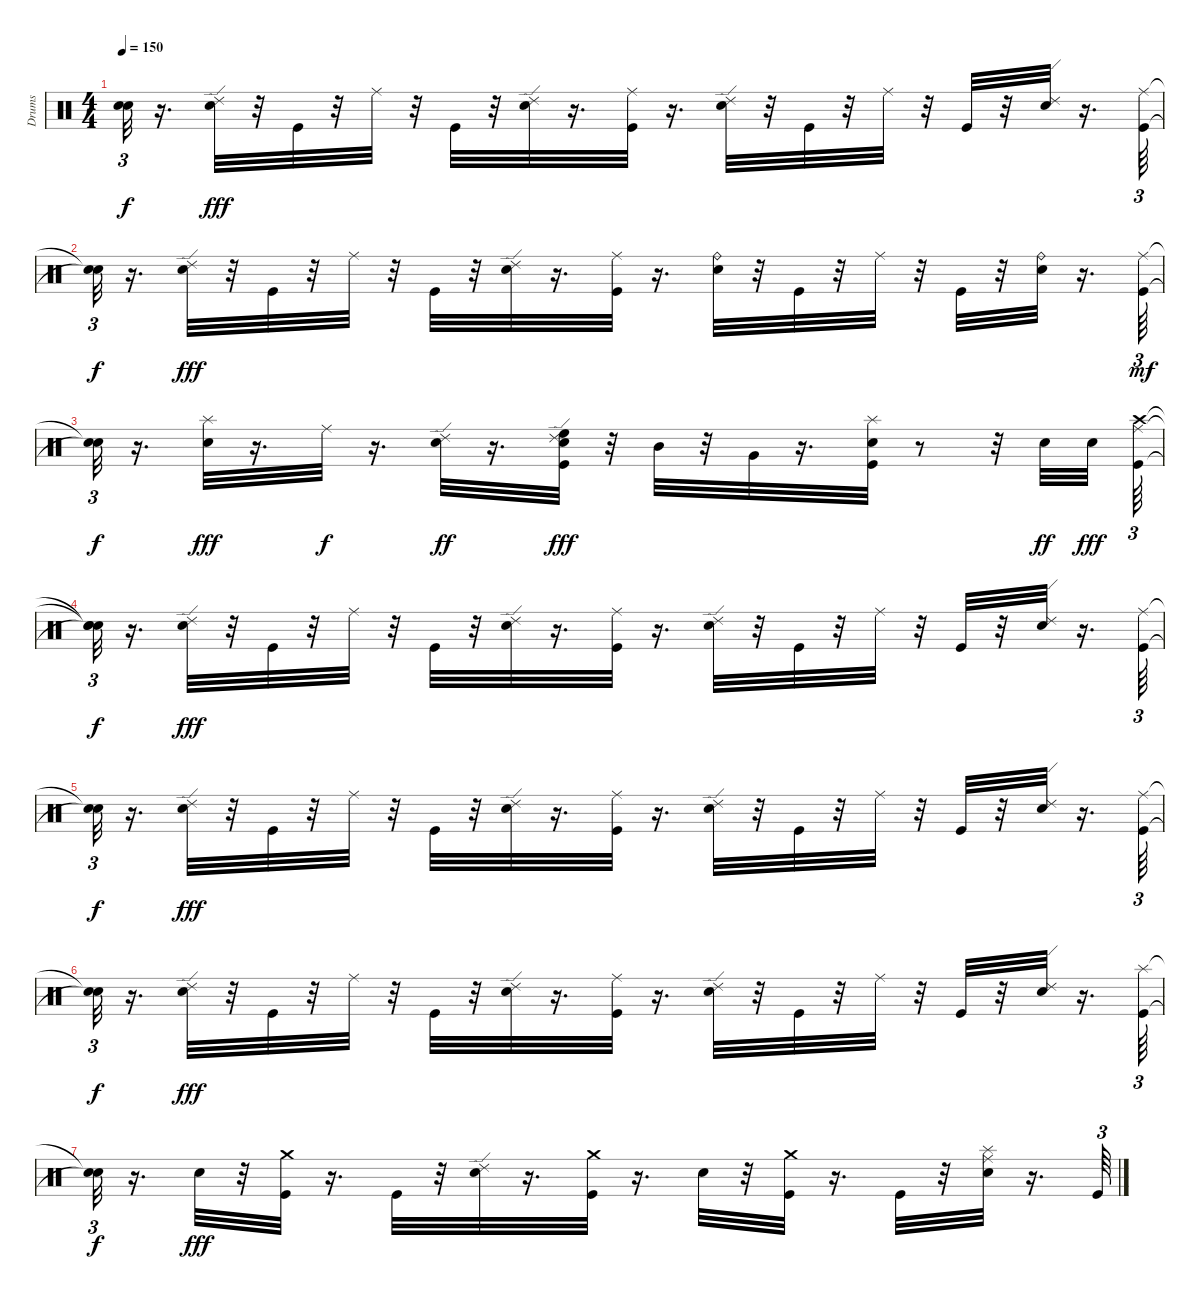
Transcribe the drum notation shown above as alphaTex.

\track ("Drums" "Drums") {instrument percussion}
\staff {score}
\articulation defaults
\ts (4 4)
\tempo 150
\clef neutral
\ks c
("Snare (hit)"{t} "Snare (hit)"{t}).32{tu (3 2) dy f} r.16{d} ("Electric Snare (hit)" "Ride (edge) 2").32{dy fff} r.32 "Kick (hit)".32 r.32 "Ride (middle)".32 r.32 "Kick (hit)".32 r.32 ("Electric Snare (hit)" "Ride (edge) 2").32 r.16{d} ("Kick (hit)" "Ride (middle)").32 r.16{d} ("Electric Snare (hit)" "Ride (edge) 2").32 r.32 "Kick (hit)".32 r.32 "Ride (middle)".32 r.32 "Kick (hit)".32 r.32 ("Electric Snare (hit)" "Ride (edge) 2").32 r.16{d} ("Kick (hit)" "Ride (middle)").64{tu (3 2)} |
("Snare (hit)"{t} "Snare (hit)"{t}).32{tu (3 2) dy f} r.16{d} ("Electric Snare (hit)" "Ride (edge) 2").32{dy fff} r.32 "Kick (hit)".32 r.32 "Ride (middle)".32 r.32 "Kick (hit)".32 r.32 ("Electric Snare (hit)" "Ride (edge) 2").32 r.16{d} ("Kick (hit)" "Ride (middle)").32 r.16{d} ("Electric Snare (hit)" "Ride (bell)").32 r.32 "Kick (hit)".32 r.32 "Ride (middle)".32 r.32 "Kick (hit)".32 r.32 ("Electric Snare (hit)" "Ride (bell)").32 r.16{d} ("Kick (hit)" "Ride (middle)").64{tu (3 2) dy mf} |
("Snare (hit)"{t} "Snare (hit)"{t}).32{tu (3 2) dy f} r.16{d} ("Electric Snare (hit)" "Splash (hit)").32{dy fff} r.16{d} "Ride (middle)".32{dy f} r.16{d} ("Electric Snare (hit)" "Ride (edge) 2").32{dy ff} r.16{d} ("Electric Snare (hit)" "Kick (hit)" "Ride (edge) 2" "High Floor Tom (hit)").32{dy fff} r.32 "Mid Tom (hit)".32 r.32 "Very Low Tom (hit)".32 r.16{d} ("Electric Snare (hit)" "Kick (hit)" "Splash (hit)").32 r.8 r.32 "Electric Snare (hit)".32{dy ff} "Electric Snare (hit)".32{dy fff beam splitsecondary} ("Ride (middle)" "Kick (hit)" "Crash high (hit)").64{tu (3 2)} |
("Snare (hit)"{t} "Snare (hit)"{t} "Snare (hit)"{t}).32{tu (3 2) dy f} r.16{d} ("Electric Snare (hit)" "Ride (edge) 2").32{dy fff} r.32 "Kick (hit)".32 r.32 "Ride (middle)".32 r.32 "Kick (hit)".32 r.32 ("Electric Snare (hit)" "Ride (edge) 2").32 r.16{d} ("Kick (hit)" "Ride (middle)").32 r.16{d} ("Electric Snare (hit)" "Ride (edge) 2").32 r.32 "Kick (hit)".32 r.32 "Ride (middle)".32 r.32 "Kick (hit)".32 r.32 ("Electric Snare (hit)" "Ride (edge) 2").32 r.16{d} ("Ride (middle)" "Kick (hit)").64{tu (3 2)} |
("Snare (hit)"{t} "Snare (hit)"{t}).32{tu (3 2) dy f} r.16{d} ("Electric Snare (hit)" "Ride (edge) 2").32{dy fff} r.32 "Kick (hit)".32 r.32 "Ride (middle)".32 r.32 "Kick (hit)".32 r.32 ("Electric Snare (hit)" "Ride (edge) 2").32 r.16{d} ("Kick (hit)" "Ride (middle)").32 r.16{d} ("Electric Snare (hit)" "Ride (edge) 2").32 r.32 "Kick (hit)".32 r.32 "Ride (middle)".32 r.32 "Kick (hit)".32 r.32 ("Electric Snare (hit)" "Ride (edge) 2").32 r.16{d} ("Kick (hit)" "Ride (middle)").64{tu (3 2)} |
("Snare (hit)"{t} "Snare (hit)"{t}).32{tu (3 2) dy f} r.16{d} ("Electric Snare (hit)" "Ride (edge) 2").32{dy fff} r.32 "Kick (hit)".32 r.32 "Ride (middle)".32 r.32 "Kick (hit)".32 r.32 ("Electric Snare (hit)" "Ride (edge) 2").32 r.16{d} ("Kick (hit)" "Ride (middle)").32 r.16{d} ("Electric Snare (hit)" "Ride (edge) 2").32 r.32 "Kick (hit)".32 r.32 "Ride (middle)".32 r.32 "Kick (hit)".32 r.32 ("Electric Snare (hit)" "Ride (edge) 2").32 r.16{d} ("Splash (hit)" "Kick (hit)").64{tu (3 2)} |
("Snare (hit)"{t} "Snare (hit)"{t}).32{tu (3 2) dy f} r.16{d} "Electric Snare (hit)".32{dy fff} r.32 ("Crash medium (hit)" "Kick (hit)").32 r.16{d} "Kick (hit)".32 r.32 ("Electric Snare (hit)" "Ride (edge) 2").32 r.16{d} ("Crash medium (hit)" "Kick (hit)").32 r.16{d} "Electric Snare (hit)".32 r.32 ("Crash medium (hit)" "Kick (hit)").32 r.16{d} "Kick (hit)".32 r.32 ("Splash (hit)" "Electric Snare (hit)" "Ride (middle)").32 r.16{d} "Kick (hit)".64{tu (3 2)}
